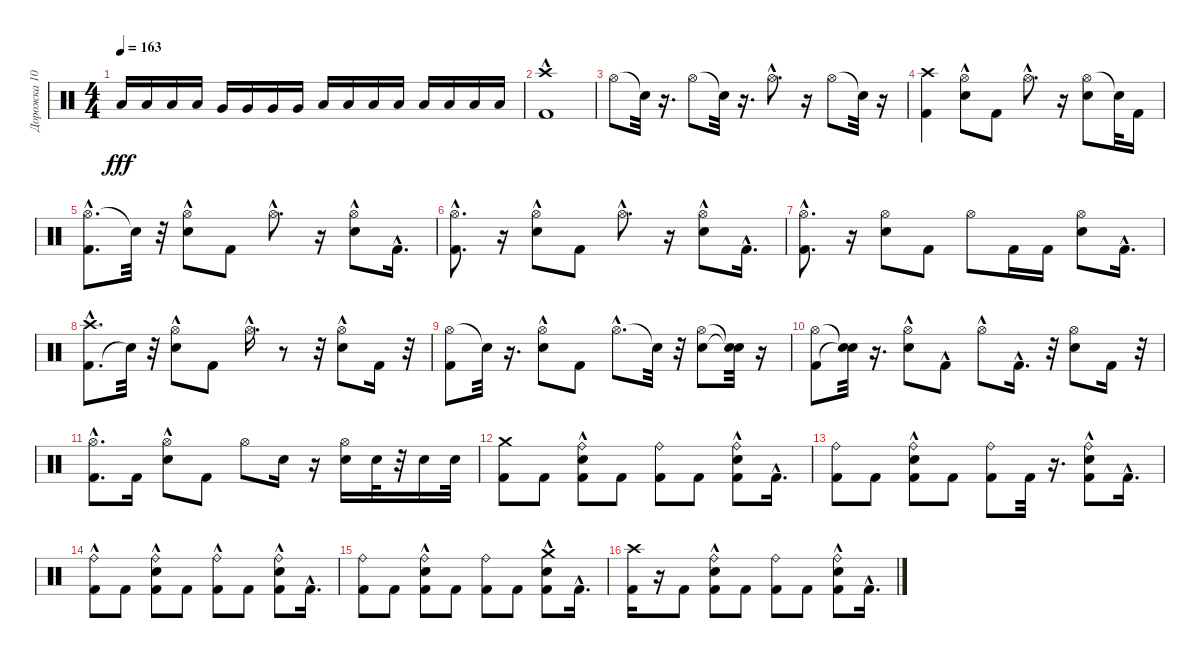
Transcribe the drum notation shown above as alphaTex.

\track ("Дорожка 10" "Дорожка 10") {instrument percussion}
\staff {score}
\articulation defaults
\ts (4 4)
\tempo 163
\clef neutral
\ks c "Low Tom (hit)".16{dy fff} "Low Tom (hit)".16 "Low Tom (hit)".16 "Low Tom (hit)".16 "Very Low Tom (hit)".16 "Very Low Tom (hit)".16 "Very Low Tom (hit)".16 "Very Low Tom (hit)".16 "Low Floor Tom (hit)".16 "Low Floor Tom (hit)".16 "Low Floor Tom (hit)".16 "Low Floor Tom (hit)".16 "Low Floor Tom (hit)".16 "Low Floor Tom (hit)".16 "Low Floor Tom (hit)".16 "Low Floor Tom (hit)".16
|
("Kick (hit) 2" "Crash high (hit)"{hac}).1 |
"Hi-Hat (open)".8 "Snare (hit)"{t}.32 r.16{d} "Hi-Hat (open)".8 "Snare (hit)"{t}.32 r.16{d} "Hi-Hat (open)"{hac}.8{d} r.16 "Hi-Hat (open)".8 "Snare (hit)"{t}.32 r.16 |
("Kick (hit) 2" "Crash high (hit)").4 ("Electric Snare (hit)"{hac} "Hi-Hat (open)"{hac}).8 "Kick (hit) 2".8 "Hi-Hat (open)"{hac}.8{d} r.16 ("Hi-Hat (open)" "Electric Snare (hit)").8 "Snare (hit)"{t}.32 "Kick (hit) 2".16 |
("Hi-Hat (open)"{hac} "Kick (hit) 2"{hac}).8{d} "Snare (hit)"{t}.32 r.32 ("Hi-Hat (open)"{hac} "Electric Snare (hit)"{hac}).8 "Kick (hit) 2".8 "Hi-Hat (open)"{hac}.8{d} r.16 ("Hi-Hat (open)"{hac} "Electric Snare (hit)"{hac}).8 "Kick (hit) 2"{hac}.16{d} |
("Hi-Hat (open)"{hac} "Kick (hit) 2"{hac}).8{d} r.16 ("Hi-Hat (open)"{hac} "Electric Snare (hit)"{hac}).8 "Kick (hit) 2".8 "Hi-Hat (open)"{hac}.8{d} r.16 ("Hi-Hat (open)" "Electric Snare (hit)"{hac}).8 "Kick (hit) 2"{hac}.16{d} |
("Hi-Hat (open)"{hac} "Kick (hit) 2"{hac}).8{d} r.16 ("Hi-Hat (open)" "Electric Snare (hit)").8 "Kick (hit) 2".8 "Hi-Hat (open)".8 "Kick (hit) 2".16 "Kick (hit) 2".16 ("Hi-Hat (open)" "Electric Snare (hit)").8 "Kick (hit) 2"{hac}.16{d} |
("Kick (hit) 2"{hac} "Crash high (hit)"{hac}).8{d} "Snare (hit)"{t}.32 r.32 ("Hi-Hat (open)" "Electric Snare (hit)"{hac}).8 "Kick (hit) 2".8 "Hi-Hat (open)"{hac}.16{d} r.8 r.32 ("Hi-Hat (open)" "Electric Snare (hit)"{hac}).8 "Kick (hit) 2".16 r.32 |
("Hi-Hat (open)" "Kick (hit) 2").8 "Snare (hit)"{t}.32 r.16{d} ("Hi-Hat (open)" "Electric Snare (hit)"{hac}).8 "Kick (hit) 2".8 "Hi-Hat (open)"{hac}.8{d} "Snare (hit)"{t}.32 r.32 ("Hi-Hat (open)" "Electric Snare (hit)").8 ("Snare (hit)"{t} "Snare (hit)"{t}).32 r.16 |
("Hi-Hat (open)" "Kick (hit) 2").8 ("Snare (hit)"{t} "Snare (hit)"{t}).32 r.16{d} ("Hi-Hat (open)" "Electric Snare (hit)"{hac}).8 "Kick (hit) 2"{hac}.8 "Hi-Hat (open)"{hac}.8 "Kick (hit) 2"{hac}.16{d} r.32 ("Hi-Hat (open)" "Electric Snare (hit)").8 "Kick (hit) 2".16 r.32 |
("Hi-Hat (open)"{hac} "Kick (hit) 2"{hac}).8{d} "Kick (hit) 2".16 ("Hi-Hat (open)" "Electric Snare (hit)"{hac}).8 "Kick (hit) 2".8 "Hi-Hat (open)".8 "Electric Snare (hit)".16 r.16 ("Hi-Hat (open)" "Electric Snare (hit)").16 "Electric Snare (hit)".32 r.32 "Electric Snare (hit)".16 "Electric Snare (hit)".32 |
("Kick (hit) 2" "Crash medium (hit)").8 "Kick (hit) 2".8 ("Kick (hit) 2" "Electric Snare (hit)"{hac} "Ride (bell)").8 "Kick (hit) 2".8 ("Kick (hit) 2" "Ride (bell)").8 "Kick (hit) 2".8 ("Kick (hit) 2" "Electric Snare (hit)"{hac} "Ride (bell)").8 "Kick (hit) 2"{hac}.16{d} |
("Kick (hit) 2" "Ride (bell)").8 "Kick (hit) 2".8 ("Kick (hit) 2" "Electric Snare (hit)"{hac} "Ride (bell)").8 "Kick (hit) 2".8 ("Kick (hit) 2" "Ride (bell)").8 "Kick (hit) 2".32 r.16{d} ("Kick (hit) 2" "Electric Snare (hit)"{hac} "Ride (bell)").8 "Kick (hit) 2"{hac}.16{d} |
("Kick (hit) 2" "Ride (bell)"{hac}).8 "Kick (hit) 2".8 ("Kick (hit) 2" "Electric Snare (hit)"{hac} "Ride (bell)"{hac}).8 "Kick (hit) 2".8 ("Kick (hit) 2" "Ride (bell)"{hac}).8 "Kick (hit) 2".8 ("Kick (hit) 2" "Electric Snare (hit)"{hac} "Ride (bell)"{hac}).8 "Kick (hit) 2"{hac}.16{d} |
("Kick (hit) 2" "Ride (bell)").8 "Kick (hit) 2".8 ("Kick (hit) 2" "Electric Snare (hit)"{hac} "Ride (bell)").8 "Kick (hit) 2".8 ("Kick (hit) 2" "Ride (bell)").8 "Kick (hit) 2".8 ("Kick (hit) 2" "Electric Snare (hit)"{hac} "Crash medium (hit)").8 "Kick (hit) 2"{hac}.16{d} |
("Kick (hit) 2" "Crash high (hit)").16 r.16 "Kick (hit) 2".8 ("Kick (hit) 2" "Electric Snare (hit)"{hac} "Ride (bell)"{hac}).8 "Kick (hit) 2".8 ("Kick (hit) 2" "Ride (bell)").8 "Kick (hit) 2".8 ("Kick (hit) 2" "Electric Snare (hit)"{hac} "Ride (bell)").8 "Kick (hit) 2"{hac}.16{d}
